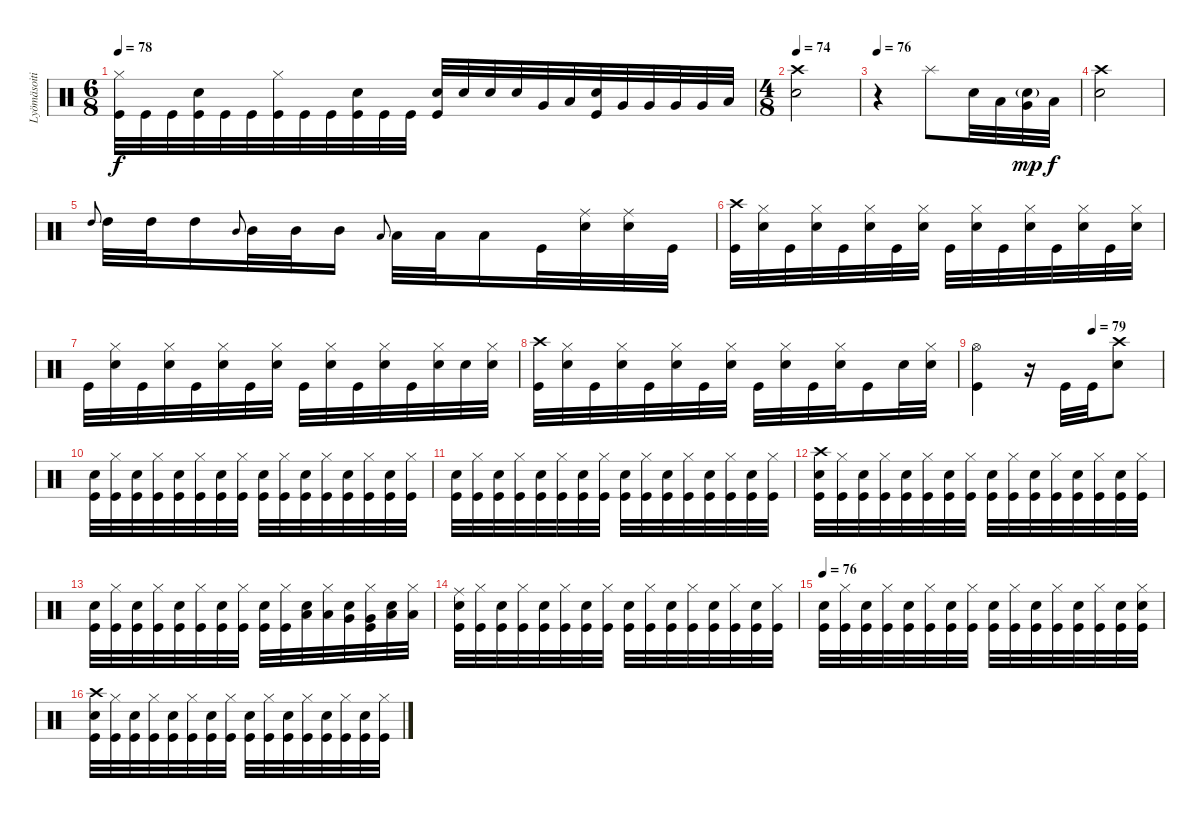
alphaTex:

\track ("Lyömäsoitin" "Lyömäsoiti") {instrument percussion}
\staff {score}
\articulation defaults
\ts (6 8)
\tempo 78
\clef neutral
\ks c
("Kick (hit)" "Hi-Hat (closed)").32{dy f} "Kick (hit)".32 "Kick (hit)".32 ("Kick (hit)" "Snare (hit) 2").32 "Kick (hit)".32 "Kick (hit)".32 ("Kick (hit)" "Hi-Hat (closed)").32 "Kick (hit)".32 "Kick (hit)".32 ("Kick (hit)" "Snare (hit) 2").32 "Kick (hit)".32 "Kick (hit)".32 ("Kick (hit)" "Snare (hit) 2").32 "Snare (hit) 2".32 "Snare (hit) 2".32 "Snare (hit) 2".32 "Very Low Tom (hit)".32 "Low Floor Tom (hit)".32 ("Kick (hit)" "Snare (hit) 2").32 "Very Low Tom (hit)".32 "Very Low Tom (hit)".32 "Very Low Tom (hit)".32 "Very Low Tom (hit)".32 "Low Floor Tom (hit)".32 |
\ts (4 8)
\tempo 74
("Snare (hit) 2" "Crash high (hit)").2 |
\tempo 76
r.4 "Splash (hit)".8 "Snare (hit) 2".32 "Low Tom (hit)".32 ("Very Low Tom (hit)" "Snare (hit) 2"{g}).32{dy mp} "Low Floor Tom (hit)".32{dy f} |
("Snare (hit) 2" "Crash high (hit)").2 |
"High Tom (hit)".8{gr onbeat} "High Tom (hit)".32 "High Tom (hit)".32 "High Tom (hit)".16 "Mid Tom (hit)".8{gr onbeat} "Mid Tom (hit)".32 "Mid Tom (hit)".32 "Mid Tom (hit)".16 "Low Tom (hit)".8{gr onbeat} "Low Tom (hit)".32 "Low Tom (hit)".32 "Low Tom (hit)".16 "Kick (hit)".32 ("Snare (hit) 2" "Ride (middle)").32 ("Snare (hit) 2" "Ride (middle)").32 "Kick (hit)".32 |
("Kick (hit)" "Crash high (hit)").32 ("Snare (hit) 2" "Hi-Hat (closed)").32 "Kick (hit)".32 ("Snare (hit) 2" "Hi-Hat (closed)").32 "Kick (hit)".32 ("Snare (hit) 2" "Hi-Hat (closed)").32 "Kick (hit)".32 ("Snare (hit) 2" "Hi-Hat (closed)").32 "Kick (hit)".32 ("Snare (hit) 2" "Hi-Hat (closed)").32 "Kick (hit)".32 ("Snare (hit) 2" "Hi-Hat (closed)").32 "Kick (hit)".32 ("Snare (hit) 2" "Hi-Hat (closed)").32 "Kick (hit)".32 ("Snare (hit) 2" "Hi-Hat (closed)").32 |
"Kick (hit)".32 ("Snare (hit) 2" "Hi-Hat (closed)").32 "Kick (hit)".32 ("Snare (hit) 2" "Hi-Hat (closed)").32 "Kick (hit)".32 ("Snare (hit) 2" "Hi-Hat (closed)").32 "Kick (hit)".32 ("Snare (hit) 2" "Hi-Hat (closed)").32 "Kick (hit)".32 ("Snare (hit) 2" "Hi-Hat (closed)").32 "Kick (hit)".32 ("Snare (hit) 2" "Hi-Hat (closed)").32 "Kick (hit)".32 ("Snare (hit) 2" "Hi-Hat (closed)").32 "Snare (hit) 2".32 ("Snare (hit) 2" "Hi-Hat (closed)").32 |
("Kick (hit)" "Crash high (hit)").32 ("Snare (hit) 2" "Hi-Hat (closed)").32 "Kick (hit)".32 ("Snare (hit) 2" "Hi-Hat (closed)").32 "Kick (hit)".32 ("Snare (hit) 2" "Hi-Hat (closed)").32 "Kick (hit)".32 ("Snare (hit) 2" "Hi-Hat (closed)").32 "Kick (hit)".32 ("Snare (hit) 2" "Hi-Hat (closed)").32 "Kick (hit)".32 ("Snare (hit) 2" "Hi-Hat (closed)").32 "Kick (hit)".16 "Snare (hit) 2".32 ("Snare (hit) 2" "Hi-Hat (closed)").32 |
\tempo (79 0.625)
("Kick (hit)" "Hi-Hat (open)").4 r.16 "Kick (hit)".32 "Kick (hit)".32 ("Snare (hit) 2" "Crash high (hit)").8 |
("Snare (hit) 2" "Kick (hit)").32 ("Hi-Hat (closed)" "Kick (hit)").32 ("Snare (hit) 2" "Kick (hit)").32 ("Hi-Hat (closed)" "Kick (hit)").32 ("Snare (hit) 2" "Kick (hit)").32 ("Hi-Hat (closed)" "Kick (hit)").32 ("Snare (hit) 2" "Kick (hit)").32 ("Hi-Hat (closed)" "Kick (hit)").32 ("Snare (hit) 2" "Kick (hit)").32 ("Hi-Hat (closed)" "Kick (hit)").32 ("Snare (hit) 2" "Kick (hit)").32 ("Hi-Hat (closed)" "Kick (hit)").32 ("Snare (hit) 2" "Kick (hit)").32 ("Kick (hit)" "Hi-Hat (closed)").32 ("Snare (hit) 2" "Kick (hit)").32 ("Hi-Hat (closed)" "Kick (hit)").32 |
("Snare (hit) 2" "Kick (hit)").32 ("Hi-Hat (closed)" "Kick (hit)").32 ("Snare (hit) 2" "Kick (hit)").32 ("Hi-Hat (closed)" "Kick (hit)").32 ("Snare (hit) 2" "Kick (hit)").32 ("Hi-Hat (closed)" "Kick (hit)").32 ("Snare (hit) 2" "Kick (hit)").32 ("Hi-Hat (closed)" "Kick (hit)").32 ("Snare (hit) 2" "Kick (hit)").32 ("Hi-Hat (closed)" "Kick (hit)").32 ("Snare (hit) 2" "Kick (hit)").32 ("Hi-Hat (closed)" "Kick (hit)").32 ("Snare (hit) 2" "Kick (hit)").32 ("Kick (hit)" "Hi-Hat (closed)").32 ("Snare (hit) 2" "Kick (hit)").32 ("Hi-Hat (closed)" "Kick (hit)").32 |
("Snare (hit) 2" "Kick (hit)" "Crash high (hit)").32 ("Hi-Hat (closed)" "Kick (hit)").32 ("Snare (hit) 2" "Kick (hit)").32 ("Hi-Hat (closed)" "Kick (hit)").32 ("Snare (hit) 2" "Kick (hit)").32 ("Hi-Hat (closed)" "Kick (hit)").32 ("Snare (hit) 2" "Kick (hit)").32 ("Hi-Hat (closed)" "Kick (hit)").32 ("Snare (hit) 2" "Kick (hit)").32 ("Hi-Hat (closed)" "Kick (hit)").32 ("Snare (hit) 2" "Kick (hit)").32 ("Hi-Hat (closed)" "Kick (hit)").32 ("Snare (hit) 2" "Kick (hit)").32 ("Kick (hit)" "Hi-Hat (closed)").32 ("Snare (hit) 2" "Kick (hit)").32 ("Hi-Hat (closed)" "Kick (hit)").32 |
("Snare (hit) 2" "Kick (hit)").32 ("Hi-Hat (closed)" "Kick (hit)").32 ("Snare (hit) 2" "Kick (hit)").32 ("Hi-Hat (closed)" "Kick (hit)").32 ("Snare (hit) 2" "Kick (hit)").32 ("Hi-Hat (closed)" "Kick (hit)").32 ("Snare (hit) 2" "Kick (hit)").32 ("Hi-Hat (closed)" "Kick (hit)").32 ("Snare (hit) 2" "Kick (hit)").32 ("Hi-Hat (closed)" "Kick (hit)").32 ("Snare (hit) 2" "Low Tom (hit)").32 ("Hi-Hat (closed)" "Low Tom (hit)").32 ("Snare (hit) 2" "Very Low Tom (hit)").32 ("Kick (hit)" "Hi-Hat (closed)" "Very Low Tom (hit)").32 ("Snare (hit) 2" "Low Floor Tom (hit)").32 ("Hi-Hat (closed)" "Low Floor Tom (hit)").32 |
("Snare (hit) 2" "Kick (hit)" "Ride (middle)").32 ("Hi-Hat (closed)" "Kick (hit)").32 ("Snare (hit) 2" "Kick (hit)").32 ("Hi-Hat (closed)" "Kick (hit)").32 ("Snare (hit) 2" "Kick (hit)").32 ("Hi-Hat (closed)" "Kick (hit)").32 ("Snare (hit) 2" "Kick (hit)").32 ("Hi-Hat (closed)" "Kick (hit)").32 ("Snare (hit) 2" "Kick (hit)").32 ("Hi-Hat (closed)" "Kick (hit)").32 ("Snare (hit) 2" "Kick (hit)").32 ("Hi-Hat (closed)" "Kick (hit)").32 ("Snare (hit) 2" "Kick (hit)").32 ("Kick (hit)" "Hi-Hat (closed)").32 ("Snare (hit) 2" "Kick (hit)").32 ("Hi-Hat (closed)" "Kick (hit)").32 |
\tempo 76
("Snare (hit) 2" "Kick (hit)").32 ("Hi-Hat (closed)" "Kick (hit)").32 ("Snare (hit) 2" "Kick (hit)").32 ("Hi-Hat (closed)" "Kick (hit)").32 ("Snare (hit) 2" "Kick (hit)").32 ("Hi-Hat (closed)" "Kick (hit)").32 ("Snare (hit) 2" "Kick (hit)").32 ("Hi-Hat (closed)" "Kick (hit)").32 ("Snare (hit) 2" "Kick (hit)").32 ("Hi-Hat (closed)" "Kick (hit)").32 ("Snare (hit) 2" "Kick (hit)").32 ("Hi-Hat (closed)" "Kick (hit)").32 ("Snare (hit) 2" "Kick (hit)").32 ("Kick (hit)" "Hi-Hat (closed)").32 ("Snare (hit) 2" "Kick (hit)").32 ("Snare (hit) 2" "Hi-Hat (closed)" "Kick (hit)").32 |
("Snare (hit) 2" "Kick (hit)" "Crash high (hit)").32 ("Hi-Hat (closed)" "Kick (hit)").32 ("Snare (hit) 2" "Kick (hit)").32 ("Hi-Hat (closed)" "Kick (hit)").32 ("Snare (hit) 2" "Kick (hit)").32 ("Hi-Hat (closed)" "Kick (hit)").32 ("Snare (hit) 2" "Kick (hit)").32 ("Hi-Hat (closed)" "Kick (hit)").32 ("Snare (hit) 2" "Kick (hit)").32 ("Hi-Hat (closed)" "Kick (hit)").32 ("Snare (hit) 2" "Kick (hit)").32 ("Hi-Hat (closed)" "Kick (hit)").32 ("Snare (hit) 2" "Kick (hit)").32 ("Kick (hit)" "Hi-Hat (closed)").32 ("Snare (hit) 2" "Kick (hit)").32 ("Hi-Hat (closed)" "Kick (hit)").32
